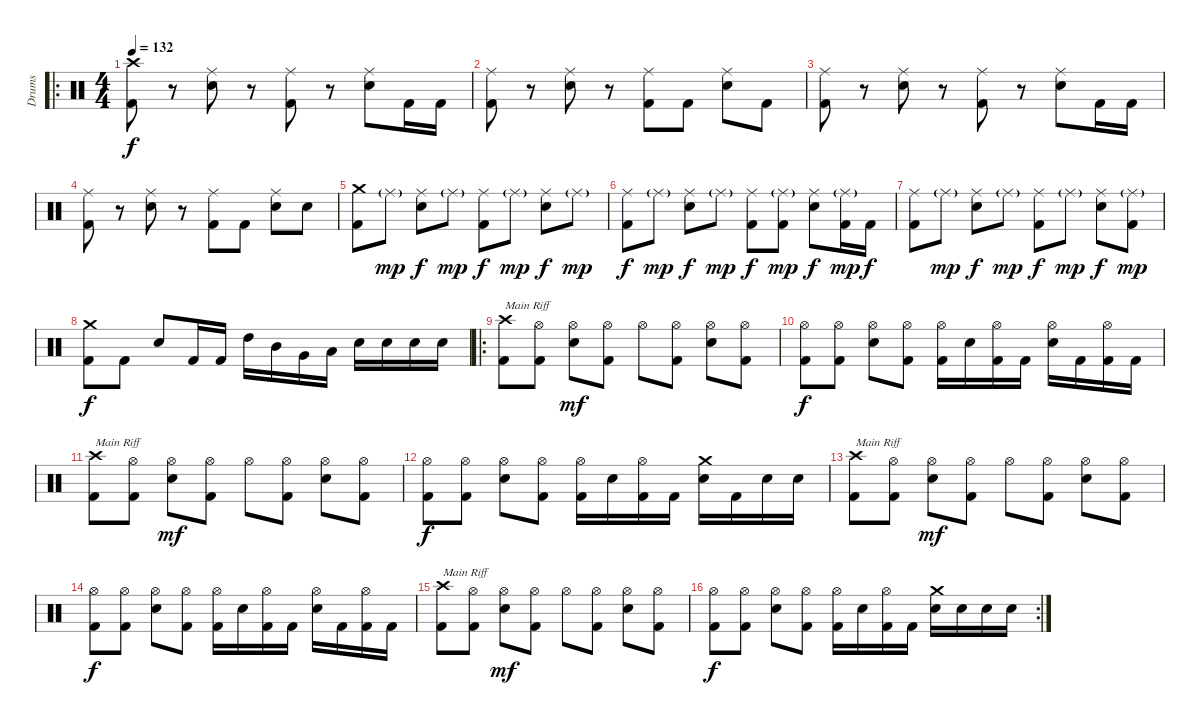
\track ("Drums" "Drums") {instrument percussion}
\staff {score}
\articulation defaults
\ro
\ts (4 4)
\tempo 132
\clef neutral
\ks c
("Crash high (hit)" "Kick (hit) 2").8{dy f} r.8 ("Ride (middle)" "Snare (hit) 2").8 r.8 ("Ride (middle)" "Kick (hit) 2").8 r.8 ("Ride (middle)" "Snare (hit) 2").8 "Kick (hit) 2".16 "Kick (hit) 2".16 |
("Ride (middle)" "Kick (hit) 2").8 r.8 ("Ride (middle)" "Snare (hit) 2").8 r.8 ("Ride (middle)" "Kick (hit) 2").8 "Kick (hit) 2".8 ("Ride (middle)" "Snare (hit) 2").8 "Kick (hit) 2".8 |
("Ride (middle)" "Kick (hit) 2").8 r.8 ("Ride (middle)" "Snare (hit) 2").8 r.8 ("Ride (middle)" "Kick (hit) 2").8 r.8 ("Ride (middle)" "Snare (hit) 2").8 "Kick (hit) 2".16 "Kick (hit) 2".16 |
("Ride (middle)" "Kick (hit) 2").8 r.8 ("Ride (middle)" "Snare (hit) 2").8 r.8 ("Ride (middle)" "Kick (hit) 2").8 "Kick (hit) 2".8 ("Ride (middle)" "Snare (hit) 2").8 "Snare (hit) 2".8 |
("Crash medium (hit)" "Kick (hit) 2").8 "Ride (middle)"{g}.8{dy mp} ("Ride (middle)" "Snare (hit) 2").8{dy f} "Ride (middle)"{g}.8{dy mp} ("Ride (middle)" "Kick (hit) 2").8{dy f} "Ride (middle)"{g}.8{dy mp} ("Ride (middle)" "Snare (hit) 2").8{dy f} "Ride (middle)"{g}.8{dy mp} |
("Ride (middle)" "Kick (hit) 2").8{dy f} "Ride (middle)"{g}.8{dy mp} ("Ride (middle)" "Snare (hit) 2").8{dy f} "Ride (middle)"{g}.8{dy mp} ("Ride (middle)" "Kick (hit) 2").8{dy f} ("Ride (middle)"{g} "Kick (hit) 2").8{dy mp} ("Ride (middle)" "Snare (hit) 2").8{dy f} ("Ride (middle)"{g} "Kick (hit) 2").16{dy mp} "Kick (hit) 2".16{dy f} |
("Ride (middle)" "Kick (hit) 2").8 "Ride (middle)"{g}.8{dy mp} ("Ride (middle)" "Snare (hit) 2").8{dy f} "Ride (middle)"{g}.8{dy mp} ("Ride (middle)" "Kick (hit) 2").8{dy f} "Ride (middle)"{g}.8{dy mp} ("Ride (middle)" "Snare (hit) 2").8{dy f} ("Ride (middle)"{g} "Kick (hit) 2").8{dy mp} |
("Crash medium (hit)" "Kick (hit) 2").8{dy f} "Kick (hit) 2".8 "Snare (hit) 2".8 "Kick (hit) 2".16 "Kick (hit) 2".16 "High Tom (hit)".16 "Mid Tom (hit)".16 "Very Low Tom (hit)".16 "Low Tom (hit)".16 "Snare (hit) 2".16 "Snare (hit) 2".16 "Snare (hit) 2".16 "Snare (hit) 2".16 |
\ro
("Crash high (hit)" "Kick (hit) 2").8{txt "Main Riff"} ("Hi-Hat (open)" "Kick (hit) 2").8 ("Hi-Hat (open)" "Snare (hit) 2").8{dy mf} ("Hi-Hat (open)" "Kick (hit) 2").8 "Hi-Hat (open)".8 ("Hi-Hat (open)" "Kick (hit) 2").8 ("Hi-Hat (open)" "Snare (hit) 2").8 ("Hi-Hat (open)" "Kick (hit) 2").8 |
("Hi-Hat (open)" "Kick (hit) 2").8{dy f} ("Hi-Hat (open)" "Kick (hit) 2").8 ("Hi-Hat (open)" "Snare (hit) 2").8 ("Hi-Hat (open)" "Kick (hit) 2").8 ("Hi-Hat (open)" "Kick (hit) 2").16 "Snare (hit) 2".16 ("Hi-Hat (open)" "Kick (hit) 2").16 "Kick (hit) 2".16 ("Hi-Hat (open)" "Snare (hit) 2").16 "Kick (hit) 2".16 ("Hi-Hat (open)" "Kick (hit) 2").16 "Kick (hit) 2".16 |
("Crash high (hit)" "Kick (hit) 2").8{txt "Main Riff"} ("Hi-Hat (open)" "Kick (hit) 2").8 ("Hi-Hat (open)" "Snare (hit) 2").8{dy mf} ("Hi-Hat (open)" "Kick (hit) 2").8 "Hi-Hat (open)".8 ("Hi-Hat (open)" "Kick (hit) 2").8 ("Hi-Hat (open)" "Snare (hit) 2").8 ("Hi-Hat (open)" "Kick (hit) 2").8 |
("Hi-Hat (open)" "Kick (hit) 2").8{dy f} ("Hi-Hat (open)" "Kick (hit) 2").8 ("Hi-Hat (open)" "Snare (hit) 2").8 ("Hi-Hat (open)" "Kick (hit) 2").8 ("Hi-Hat (open)" "Kick (hit) 2").16 "Snare (hit) 2".16 ("Hi-Hat (open)" "Kick (hit) 2").16 "Kick (hit) 2".16 ("Crash medium (hit)" "Snare (hit) 2").16 "Kick (hit) 2".16 "Snare (hit) 2".16 "Snare (hit) 2".16 |
("Crash high (hit)" "Kick (hit) 2").8{txt "Main Riff"} ("Hi-Hat (open)" "Kick (hit) 2").8 ("Hi-Hat (open)" "Snare (hit) 2").8{dy mf} ("Hi-Hat (open)" "Kick (hit) 2").8 "Hi-Hat (open)".8 ("Hi-Hat (open)" "Kick (hit) 2").8 ("Hi-Hat (open)" "Snare (hit) 2").8 ("Hi-Hat (open)" "Kick (hit) 2").8 |
("Hi-Hat (open)" "Kick (hit) 2").8{dy f} ("Hi-Hat (open)" "Kick (hit) 2").8 ("Hi-Hat (open)" "Snare (hit) 2").8 ("Hi-Hat (open)" "Kick (hit) 2").8 ("Hi-Hat (open)" "Kick (hit) 2").16 "Snare (hit) 2".16 ("Hi-Hat (open)" "Kick (hit) 2").16 "Kick (hit) 2".16 ("Hi-Hat (open)" "Snare (hit) 2").16 "Kick (hit) 2".16 ("Hi-Hat (open)" "Kick (hit) 2").16 "Kick (hit) 2".16 |
("Crash high (hit)" "Kick (hit) 2").8{txt "Main Riff"} ("Hi-Hat (open)" "Kick (hit) 2").8 ("Hi-Hat (open)" "Snare (hit) 2").8{dy mf} ("Hi-Hat (open)" "Kick (hit) 2").8 "Hi-Hat (open)".8 ("Hi-Hat (open)" "Kick (hit) 2").8 ("Hi-Hat (open)" "Snare (hit) 2").8 ("Hi-Hat (open)" "Kick (hit) 2").8 |
\rc 2
("Hi-Hat (open)" "Kick (hit) 2").8{dy f} ("Hi-Hat (open)" "Kick (hit) 2").8 ("Hi-Hat (open)" "Snare (hit) 2").8 ("Hi-Hat (open)" "Kick (hit) 2").8 ("Hi-Hat (open)" "Kick (hit) 2").16 "Snare (hit) 2".16 ("Hi-Hat (open)" "Kick (hit) 2").16 "Kick (hit) 2".16 ("Crash medium (hit)" "Snare (hit) 2").16 "Snare (hit) 2".16 "Snare (hit) 2".16 "Snare (hit) 2".16
